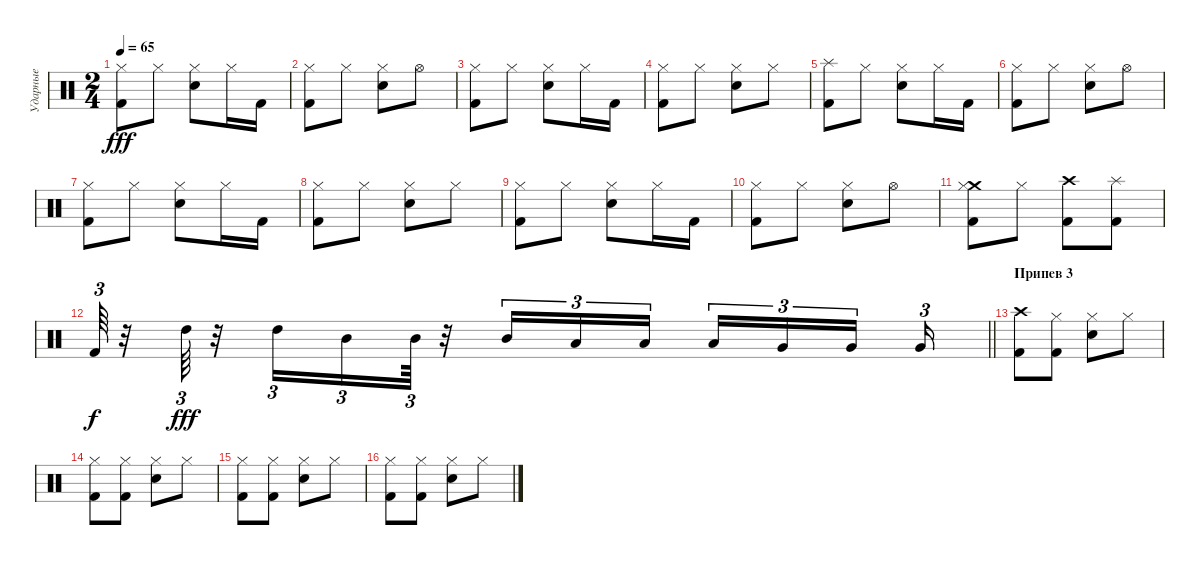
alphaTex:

\track ("Ударные" "Ударные") {instrument percussion}
\staff
\articulation defaults
\ts (2 4)
\tempo 65
\clef neutral
\ks c
("Kick (hit) 2" "Hi-Hat (closed)").8{dy fff} "Hi-Hat (closed)".8 ("Snare (hit) 2" "Hi-Hat (closed)").8 "Hi-Hat (closed)".16 "Kick (hit) 2".16 |
("Kick (hit) 2" "Hi-Hat (closed)").8 "Hi-Hat (closed)".8 ("Snare (hit) 2" "Hi-Hat (closed)").8 "Hi-Hat (open)".8 |
("Kick (hit) 2" "Hi-Hat (closed)").8 "Hi-Hat (closed)".8 ("Snare (hit) 2" "Hi-Hat (closed)").8 "Hi-Hat (closed)".16 "Kick (hit) 2".16 |
("Kick (hit) 2" "Hi-Hat (closed)").8 "Hi-Hat (closed)".8 ("Snare (hit) 2" "Hi-Hat (closed)").8 "Hi-Hat (closed)".8 |
("Kick (hit) 2" "Splash (hit)").8 "Hi-Hat (closed)".8 ("Snare (hit) 2" "Hi-Hat (closed)").8 "Hi-Hat (closed)".16 "Kick (hit) 2".16 |
("Kick (hit) 2" "Hi-Hat (closed)").8 "Hi-Hat (closed)".8 ("Snare (hit) 2" "Hi-Hat (closed)").8 "Hi-Hat (open)".8 |
("Kick (hit) 2" "Hi-Hat (closed)").8 "Hi-Hat (closed)".8 ("Snare (hit) 2" "Hi-Hat (closed)").8 "Hi-Hat (closed)".16 "Kick (hit) 2".16 |
("Kick (hit) 2" "Hi-Hat (closed)").8 "Hi-Hat (closed)".8 ("Snare (hit) 2" "Hi-Hat (closed)").8 "Hi-Hat (closed)".8 |
("Kick (hit) 2" "Hi-Hat (closed)").8 "Hi-Hat (closed)".8 ("Snare (hit) 2" "Hi-Hat (closed)").8 "Hi-Hat (closed)".16 "Kick (hit) 2".16 |
("Kick (hit) 2" "Hi-Hat (closed)").8 "Hi-Hat (closed)".8 ("Snare (hit) 2" "Hi-Hat (closed)").8 "Hi-Hat (open)".8 |
("Kick (hit) 2" "Crash medium (hit)" "Hi-Hat (closed)").8 "Hi-Hat (closed)".8 ("Kick (hit) 2" "Crash high (hit)").8 ("Kick (hit) 2" "Splash (hit)").8 |
\barLineRight lightlight "Kick (hit) 2".64{tu (3 2) dy f}
r.32 "High Tom (hit)".64{tu (3 2) dy fff} r.32 "High Tom (hit)".16{tu (3 2)} "Mid Tom (hit)".16{tu (3 2)} "Mid Tom (hit)".64{tu (3 2)} r.32 "Mid Tom (hit)".16{tu (3 2)} "Low Tom (hit)".16{tu (3 2)} "Low Tom (hit)".16{tu (3 2) beam splitsecondary} "Low Tom (hit)".16{tu (3 2)} "Very Low Tom (hit)".16{tu (3 2)} "Very Low Tom (hit)".16{tu (3 2) beam splitsecondary} "Very Low Tom (hit)".16{tu (3 2)} |
\section ("" "Припев 3")
("Kick (hit) 2" "Crash high (hit)").8 ("Kick (hit) 2" "Hi-Hat (closed)").8 ("Snare (hit) 2" "Hi-Hat (closed)").8 "Hi-Hat (closed)".8 |
("Kick (hit) 2" "Hi-Hat (closed)").8 ("Kick (hit) 2" "Hi-Hat (closed)").8 ("Snare (hit) 2" "Hi-Hat (closed)").8 "Hi-Hat (closed)".8 |
("Kick (hit) 2" "Hi-Hat (closed)").8 ("Kick (hit) 2" "Hi-Hat (closed)").8 ("Snare (hit) 2" "Hi-Hat (closed)").8 "Hi-Hat (closed)".8 |
("Kick (hit) 2" "Hi-Hat (closed)").8 ("Kick (hit) 2" "Hi-Hat (closed)").8 ("Snare (hit) 2" "Hi-Hat (closed)").8 "Hi-Hat (closed)".8
